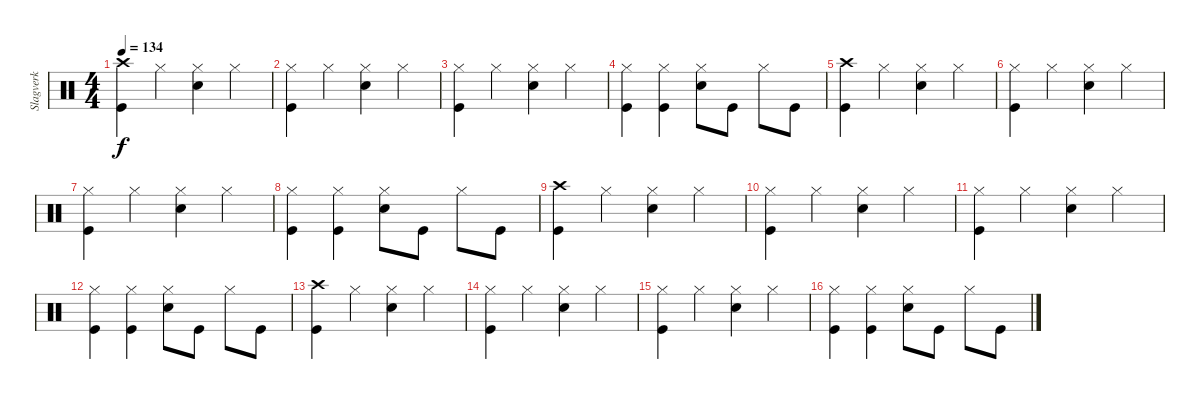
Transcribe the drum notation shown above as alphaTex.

\track ("Slagverk" "Slagverk") {instrument percussion}
\staff {score}
\articulation defaults
\ts (4 4)
\tempo 134
\clef neutral
\ks c
("Crash high (hit)" "Kick (hit)").4{dy f} "Hi-Hat (closed)".4 ("Hi-Hat (closed)" "Snare (hit) 2").4 "Hi-Hat (closed)".4 |
("Hi-Hat (closed)" "Kick (hit)").4 "Hi-Hat (closed)".4 ("Hi-Hat (closed)" "Snare (hit) 2").4 "Hi-Hat (closed)".4 |
("Hi-Hat (closed)" "Kick (hit)").4 "Hi-Hat (closed)".4 ("Hi-Hat (closed)" "Snare (hit) 2").4 "Hi-Hat (closed)".4 |
("Hi-Hat (closed)" "Kick (hit)").4 ("Hi-Hat (closed)" "Kick (hit)").4 ("Hi-Hat (closed)" "Snare (hit) 2").8 "Kick (hit)".8 "Hi-Hat (closed)".8 "Kick (hit)".8 |
("Crash high (hit)" "Kick (hit)").4 "Hi-Hat (closed)".4 ("Hi-Hat (closed)" "Snare (hit) 2").4 "Hi-Hat (closed)".4 |
("Hi-Hat (closed)" "Kick (hit)").4 "Hi-Hat (closed)".4 ("Hi-Hat (closed)" "Snare (hit) 2").4 "Hi-Hat (closed)".4 |
("Hi-Hat (closed)" "Kick (hit)").4 "Hi-Hat (closed)".4 ("Hi-Hat (closed)" "Snare (hit) 2").4 "Hi-Hat (closed)".4 |
("Hi-Hat (closed)" "Kick (hit)").4 ("Hi-Hat (closed)" "Kick (hit)").4 ("Hi-Hat (closed)" "Snare (hit) 2").8 "Kick (hit)".8 "Hi-Hat (closed)".8 "Kick (hit)".8 |
("Crash high (hit)" "Kick (hit)").4 "Hi-Hat (closed)".4 ("Hi-Hat (closed)" "Snare (hit) 2").4 "Hi-Hat (closed)".4 |
("Hi-Hat (closed)" "Kick (hit)").4 "Hi-Hat (closed)".4 ("Hi-Hat (closed)" "Snare (hit) 2").4 "Hi-Hat (closed)".4 |
("Hi-Hat (closed)" "Kick (hit)").4 "Hi-Hat (closed)".4 ("Hi-Hat (closed)" "Snare (hit) 2").4 "Hi-Hat (closed)".4 |
("Hi-Hat (closed)" "Kick (hit)").4 ("Hi-Hat (closed)" "Kick (hit)").4 ("Hi-Hat (closed)" "Snare (hit) 2").8 "Kick (hit)".8 "Hi-Hat (closed)".8 "Kick (hit)".8 |
("Crash high (hit)" "Kick (hit)").4 "Hi-Hat (closed)".4 ("Hi-Hat (closed)" "Snare (hit) 2").4 "Hi-Hat (closed)".4 |
("Hi-Hat (closed)" "Kick (hit)").4 "Hi-Hat (closed)".4 ("Hi-Hat (closed)" "Snare (hit) 2").4 "Hi-Hat (closed)".4 |
("Hi-Hat (closed)" "Kick (hit)").4 "Hi-Hat (closed)".4 ("Hi-Hat (closed)" "Snare (hit) 2").4 "Hi-Hat (closed)".4 |
("Hi-Hat (closed)" "Kick (hit)").4 ("Hi-Hat (closed)" "Kick (hit)").4 ("Hi-Hat (closed)" "Snare (hit) 2").8 "Kick (hit)".8 "Hi-Hat (closed)".8 "Kick (hit)".8
